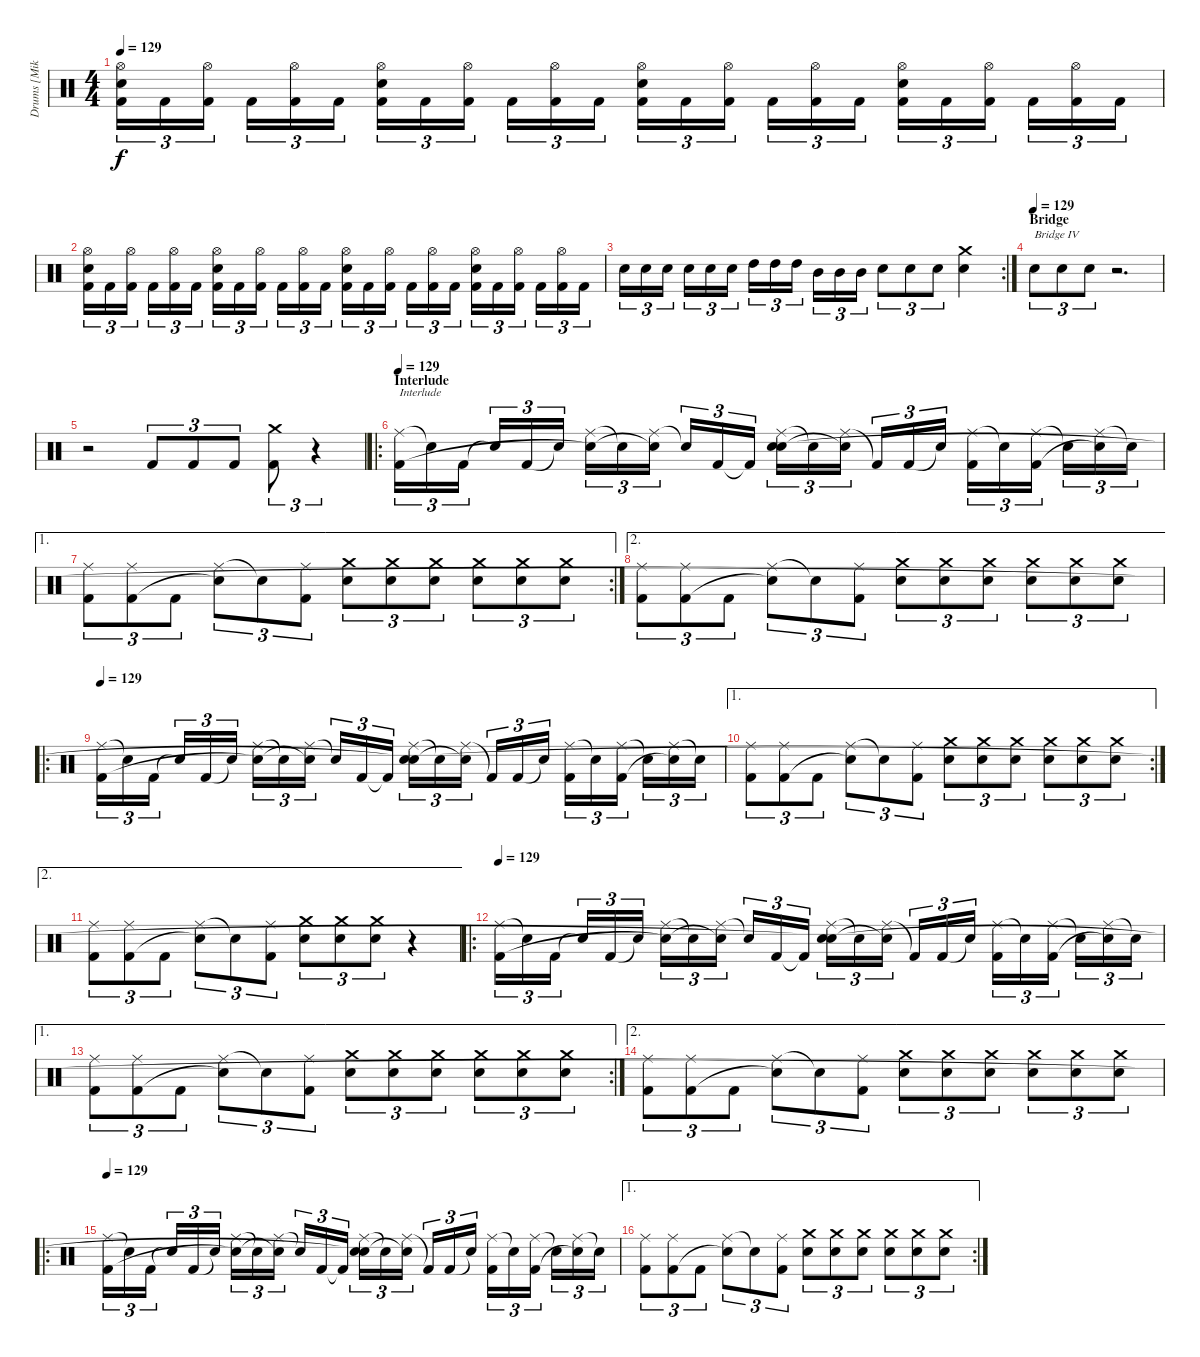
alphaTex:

\track ("Drums [Mike Smith]" "Drums [Mik") {instrument percussion}
\staff {score}
\articulation defaults
\ts (4 4)
\tempo 129
\clef neutral
\ks c
("Hi-Hat (open)" "Electric Snare (hit)" "Kick (hit) 2").16{tu (3 2) dy f} "Kick (hit) 2".16{tu (3 2)} ("Hi-Hat (open)" "Kick (hit) 2").16{tu (3 2)} "Kick (hit) 2".16{tu (3 2)} ("Hi-Hat (open)" "Kick (hit) 2").16{tu (3 2)} "Kick (hit) 2".16{tu (3 2)} ("Hi-Hat (open)" "Electric Snare (hit)" "Kick (hit) 2").16{tu (3 2)} "Kick (hit) 2".16{tu (3 2)} ("Hi-Hat (open)" "Kick (hit) 2").16{tu (3 2)} "Kick (hit) 2".16{tu (3 2)} ("Hi-Hat (open)" "Kick (hit) 2").16{tu (3 2)} "Kick (hit) 2".16{tu (3 2)} ("Hi-Hat (open)" "Electric Snare (hit)" "Kick (hit) 2").16{tu (3 2)} "Kick (hit) 2".16{tu (3 2)} ("Hi-Hat (open)" "Kick (hit) 2").16{tu (3 2)} "Kick (hit) 2".16{tu (3 2)} ("Hi-Hat (open)" "Kick (hit) 2").16{tu (3 2)} "Kick (hit) 2".16{tu (3 2)} ("Hi-Hat (open)" "Electric Snare (hit)" "Kick (hit) 2").16{tu (3 2)} "Kick (hit) 2".16{tu (3 2)} ("Hi-Hat (open)" "Kick (hit) 2").16{tu (3 2)} "Kick (hit) 2".16{tu (3 2)} ("Hi-Hat (open)" "Kick (hit) 2").16{tu (3 2)} "Kick (hit) 2".16{tu (3 2)} |
("Hi-Hat (open)" "Electric Snare (hit)" "Kick (hit) 2").16{tu (3 2)} "Kick (hit) 2".16{tu (3 2)} ("Hi-Hat (open)" "Kick (hit) 2").16{tu (3 2)} "Kick (hit) 2".16{tu (3 2)} ("Hi-Hat (open)" "Kick (hit) 2").16{tu (3 2)} "Kick (hit) 2".16{tu (3 2)} ("Hi-Hat (open)" "Electric Snare (hit)" "Kick (hit) 2").16{tu (3 2)} "Kick (hit) 2".16{tu (3 2)} ("Hi-Hat (open)" "Kick (hit) 2").16{tu (3 2)} "Kick (hit) 2".16{tu (3 2)} ("Hi-Hat (open)" "Kick (hit) 2").16{tu (3 2)} "Kick (hit) 2".16{tu (3 2)} ("Hi-Hat (open)" "Electric Snare (hit)" "Kick (hit) 2").16{tu (3 2)} "Kick (hit) 2".16{tu (3 2)} ("Hi-Hat (open)" "Kick (hit) 2").16{tu (3 2)} "Kick (hit) 2".16{tu (3 2)} ("Hi-Hat (open)" "Kick (hit) 2").16{tu (3 2)} "Kick (hit) 2".16{tu (3 2)} ("Hi-Hat (open)" "Electric Snare (hit)" "Kick (hit) 2").16{tu (3 2)} "Kick (hit) 2".16{tu (3 2)} ("Hi-Hat (open)" "Kick (hit) 2").16{tu (3 2)} "Kick (hit) 2".16{tu (3 2)} ("Hi-Hat (open)" "Kick (hit) 2").16{tu (3 2)} "Kick (hit) 2".16{tu (3 2)} |
\rc 2 "Electric Snare (hit)".16{tu (3 2)} "Electric Snare (hit)".16{tu (3 2)} "Electric Snare (hit)".16{tu (3 2)} "Electric Snare (hit)".16{tu (3 2)} "Electric Snare (hit)".16{tu (3 2)} "Electric Snare (hit)".16{tu (3 2)} "High Tom (hit)".16{tu (3 2)} "High Tom (hit)".16{tu (3 2)} "High Tom (hit)".16{tu (3 2)} "Mid Tom (hit)".16{tu (3 2)} "Mid Tom (hit)".16{tu (3 2)} "Mid Tom (hit)".16{tu (3 2)} "Electric Snare (hit)".8{tu (3 2)} "Electric Snare (hit)".8{tu (3 2)} "Electric Snare (hit)".8{tu (3 2)}
("Crash medium (hit)" "Electric Snare (hit)").4 |
\section ("" "Bridge")
\tempo (129)
"Electric Snare (hit)".8{tu (3 2) txt "Bridge IV"} "Electric Snare (hit)".8{tu (3 2)} "Electric Snare (hit)".8{tu (3 2)} r.2{d} |
r.2 "Kick (hit) 2".8{tu (3 2)} "Kick (hit) 2".8{tu (3 2)} "Kick (hit) 2".8{tu (3 2)} ("Crash medium (hit)" "Kick (hit) 2").8{tu (3 2)} r.4{tu (3 2)} |
\ro
\section ("" "Interlude")
\tempo 129
("Ride (middle)" "Kick (hit) 2").16{tu (3 2) txt "Interlude"} "Snare (hit)"{t}.16{tu (3 2)} "Kick (hit) 2".16{tu (3 2)} "Snare (hit)"{t}.16{tu (3 2)} "Kick (hit) 2".16{tu (3 2)} "Snare (hit)"{t}.16{tu (3 2)} ("Ride (middle)" "Snare (hit)"{t}).16{tu (3 2)} "Snare (hit)"{t}.16{tu (3 2)} ("Ride (middle)" "Snare (hit)"{t}).16{tu (3 2)} "Snare (hit)"{t}.16{tu (3 2)} "Kick (hit) 2".16{tu (3 2)} "Kick (hit) 2"{t}.16{tu (3 2)} ("Ride (middle)" "Electric Snare (hit)" "Snare (hit)").16{tu (3 2)} "Snare (hit)"{t}.16{tu (3 2)} ("Ride (middle)" "Snare (hit)"{t}).16{tu (3 2)} "Kick (hit) 2"{t}.16{tu (3 2)} "Kick (hit) 2".16{tu (3 2)} "Snare (hit)"{t}.16{tu (3 2)} ("Ride (middle)" "Kick (hit) 2").16{tu (3 2)} "Snare (hit)"{t}.16{tu (3 2)} ("Ride (middle)" "Kick (hit) 2").16{tu (3 2)} "Snare (hit)"{t}.16{tu (3 2)} ("Ride (middle)" "Snare (hit)"{t}).16{tu (3 2)} "Snare (hit)"{t}.16{tu (3 2)} |
\ae 1
\rc 2
("Ride (middle)" "Kick (hit) 2").8{tu (3 2)} ("Ride (middle)" "Kick (hit) 2").8{tu (3 2)} "Kick (hit) 2".8{tu (3 2)} ("Ride (middle)" "Snare (hit)"{t}).8{tu (3 2)} "Snare (hit)"{t}.8{tu (3 2)} ("Ride (middle)" "Kick (hit) 2").8{tu (3 2)} ("Crash medium (hit)" "Electric Snare (hit)").8{tu (3 2)} ("Crash medium (hit)" "Electric Snare (hit)").8{tu (3 2)} ("Crash medium (hit)" "Electric Snare (hit)").8{tu (3 2)} ("Crash medium (hit)" "Electric Snare (hit)").8{tu (3 2)} ("Crash medium (hit)" "Electric Snare (hit)").8{tu (3 2)} ("Crash medium (hit)" "Electric Snare (hit)").8{tu (3 2)} |
\ae 2
("Ride (middle)" "Kick (hit) 2").8{tu (3 2)} ("Ride (middle)" "Kick (hit) 2").8{tu (3 2)} "Kick (hit) 2".8{tu (3 2)} ("Ride (middle)" "Snare (hit)"{t}).8{tu (3 2)} "Snare (hit)"{t}.8{tu (3 2)} ("Ride (middle)" "Kick (hit) 2").8{tu (3 2)} ("Crash medium (hit)" "Electric Snare (hit)").8{tu (3 2)} ("Crash medium (hit)" "Electric Snare (hit)").8{tu (3 2)} ("Crash medium (hit)" "Electric Snare (hit)").8{tu (3 2)} ("Crash medium (hit)" "Electric Snare (hit)").8{tu (3 2)} ("Crash medium (hit)" "Electric Snare (hit)").8{tu (3 2)} ("Crash medium (hit)" "Electric Snare (hit)").8{tu (3 2)} |
\ro
\tempo 129
("Ride (middle)" "Kick (hit) 2").16{tu (3 2)} "Snare (hit)"{t}.16{tu (3 2)} "Kick (hit) 2".16{tu (3 2)} "Snare (hit)"{t}.16{tu (3 2)} "Kick (hit) 2".16{tu (3 2)} "Snare (hit)"{t}.16{tu (3 2)} ("Ride (middle)" "Snare (hit)"{t}).16{tu (3 2)} "Snare (hit)"{t}.16{tu (3 2)} ("Ride (middle)" "Snare (hit)"{t}).16{tu (3 2)} "Snare (hit)"{t}.16{tu (3 2)} "Kick (hit) 2".16{tu (3 2)} "Kick (hit) 2"{t}.16{tu (3 2)} ("Ride (middle)" "Electric Snare (hit)" "Snare (hit)"{t}).16{tu (3 2)} "Snare (hit)"{t}.16{tu (3 2)} ("Ride (middle)" "Snare (hit)"{t}).16{tu (3 2)} "Kick (hit) 2"{t}.16{tu (3 2)} "Kick (hit) 2".16{tu (3 2)} "Snare (hit)"{t}.16{tu (3 2)} ("Ride (middle)" "Kick (hit) 2").16{tu (3 2)} "Snare (hit)"{t}.16{tu (3 2)} ("Ride (middle)" "Kick (hit) 2").16{tu (3 2)} "Snare (hit)"{t}.16{tu (3 2)} ("Ride (middle)" "Snare (hit)"{t}).16{tu (3 2)} "Snare (hit)"{t}.16{tu (3 2)} |
\ae 1
\rc 2
("Ride (middle)" "Kick (hit) 2").8{tu (3 2)} ("Ride (middle)" "Kick (hit) 2").8{tu (3 2)} "Kick (hit) 2".8{tu (3 2)} ("Ride (middle)" "Snare (hit)"{t}).8{tu (3 2)} "Snare (hit)"{t}.8{tu (3 2)} ("Ride (middle)" "Kick (hit) 2").8{tu (3 2)} ("Crash medium (hit)" "Electric Snare (hit)").8{tu (3 2)} ("Crash medium (hit)" "Electric Snare (hit)").8{tu (3 2)} ("Crash medium (hit)" "Electric Snare (hit)").8{tu (3 2)} ("Crash medium (hit)" "Electric Snare (hit)").8{tu (3 2)} ("Crash medium (hit)" "Electric Snare (hit)").8{tu (3 2)} ("Crash medium (hit)" "Electric Snare (hit)").8{tu (3 2)} |
\ae 2
("Ride (middle)" "Kick (hit) 2").8{tu (3 2)} ("Ride (middle)" "Kick (hit) 2").8{tu (3 2)} "Kick (hit) 2".8{tu (3 2)} ("Ride (middle)" "Snare (hit)"{t}).8{tu (3 2)} "Snare (hit)"{t}.8{tu (3 2)} ("Ride (middle)" "Kick (hit) 2").8{tu (3 2)} ("Crash medium (hit)" "Electric Snare (hit)").8{tu (3 2)} ("Crash medium (hit)" "Electric Snare (hit)").8{tu (3 2)} ("Crash medium (hit)" "Electric Snare (hit)").8{tu (3 2)} r.4 |
\ro
\tempo 129
("Ride (middle)" "Kick (hit) 2").16{tu (3 2)} "Snare (hit)"{t}.16{tu (3 2)} "Kick (hit) 2".16{tu (3 2)} "Snare (hit)"{t}.16{tu (3 2)} "Kick (hit) 2".16{tu (3 2)} "Snare (hit)"{t}.16{tu (3 2)} ("Ride (middle)" "Snare (hit)"{t}).16{tu (3 2)} "Snare (hit)"{t}.16{tu (3 2)} ("Ride (middle)" "Snare (hit)"{t}).16{tu (3 2)} "Snare (hit)"{t}.16{tu (3 2)} "Kick (hit) 2".16{tu (3 2)} "Kick (hit) 2"{t}.16{tu (3 2)} ("Ride (middle)" "Electric Snare (hit)" "Snare (hit)"{t}).16{tu (3 2)} "Snare (hit)"{t}.16{tu (3 2)} ("Ride (middle)" "Snare (hit)"{t}).16{tu (3 2)} "Kick (hit) 2"{t}.16{tu (3 2)} "Kick (hit) 2".16{tu (3 2)} "Snare (hit)"{t}.16{tu (3 2)} ("Ride (middle)" "Kick (hit) 2").16{tu (3 2)} "Snare (hit)"{t}.16{tu (3 2)} ("Ride (middle)" "Kick (hit) 2").16{tu (3 2)} "Snare (hit)"{t}.16{tu (3 2)} ("Ride (middle)" "Snare (hit)"{t}).16{tu (3 2)} "Snare (hit)"{t}.16{tu (3 2)} |
\ae 1
\rc 2
("Ride (middle)" "Kick (hit) 2").8{tu (3 2)} ("Ride (middle)" "Kick (hit) 2").8{tu (3 2)} "Kick (hit) 2".8{tu (3 2)} ("Ride (middle)" "Snare (hit)"{t}).8{tu (3 2)} "Snare (hit)"{t}.8{tu (3 2)} ("Ride (middle)" "Kick (hit) 2").8{tu (3 2)} ("Crash medium (hit)" "Electric Snare (hit)").8{tu (3 2)} ("Crash medium (hit)" "Electric Snare (hit)").8{tu (3 2)} ("Crash medium (hit)" "Electric Snare (hit)").8{tu (3 2)} ("Crash medium (hit)" "Electric Snare (hit)").8{tu (3 2)} ("Crash medium (hit)" "Electric Snare (hit)").8{tu (3 2)} ("Crash medium (hit)" "Electric Snare (hit)").8{tu (3 2)} |
\ae 2
("Ride (middle)" "Kick (hit) 2").8{tu (3 2)} ("Ride (middle)" "Kick (hit) 2").8{tu (3 2)} "Kick (hit) 2".8{tu (3 2)} ("Ride (middle)" "Snare (hit)"{t}).8{tu (3 2)} "Snare (hit)"{t}.8{tu (3 2)} ("Ride (middle)" "Kick (hit) 2").8{tu (3 2)} ("Crash medium (hit)" "Electric Snare (hit)").8{tu (3 2)} ("Crash medium (hit)" "Electric Snare (hit)").8{tu (3 2)} ("Crash medium (hit)" "Electric Snare (hit)").8{tu (3 2)} ("Crash medium (hit)" "Electric Snare (hit)").8{tu (3 2)} ("Crash medium (hit)" "Electric Snare (hit)").8{tu (3 2)} ("Crash medium (hit)" "Electric Snare (hit)").8{tu (3 2)} |
\ro
\tempo 129
("Ride (middle)" "Kick (hit) 2").16{tu (3 2)} "Snare (hit)"{t}.16{tu (3 2)} "Kick (hit) 2".16{tu (3 2)} "Snare (hit)"{t}.16{tu (3 2)} "Kick (hit) 2".16{tu (3 2)} "Snare (hit)"{t}.16{tu (3 2)} ("Ride (middle)" "Snare (hit)"{t}).16{tu (3 2)} "Snare (hit)"{t}.16{tu (3 2)} ("Ride (middle)" "Snare (hit)"{t}).16{tu (3 2)} "Snare (hit)"{t}.16{tu (3 2)} "Kick (hit) 2".16{tu (3 2)} "Kick (hit) 2"{t}.16{tu (3 2)} ("Ride (middle)" "Electric Snare (hit)" "Snare (hit)"{t}).16{tu (3 2)} "Snare (hit)"{t}.16{tu (3 2)} ("Ride (middle)" "Snare (hit)"{t}).16{tu (3 2)} "Kick (hit) 2"{t}.16{tu (3 2)} "Kick (hit) 2".16{tu (3 2)} "Snare (hit)"{t}.16{tu (3 2)} ("Ride (middle)" "Kick (hit) 2").16{tu (3 2)} "Snare (hit)"{t}.16{tu (3 2)} ("Ride (middle)" "Kick (hit) 2").16{tu (3 2)} "Snare (hit)"{t}.16{tu (3 2)} ("Ride (middle)" "Snare (hit)"{t}).16{tu (3 2)} "Snare (hit)"{t}.16{tu (3 2)} |
\ae 1
\rc 2
("Ride (middle)" "Kick (hit) 2").8{tu (3 2)} ("Ride (middle)" "Kick (hit) 2").8{tu (3 2)} "Kick (hit) 2".8{tu (3 2)} ("Ride (middle)" "Snare (hit)"{t}).8{tu (3 2)} "Snare (hit)"{t}.8{tu (3 2)} ("Ride (middle)" "Kick (hit) 2").8{tu (3 2)} ("Crash medium (hit)" "Electric Snare (hit)").8{tu (3 2)} ("Crash medium (hit)" "Electric Snare (hit)").8{tu (3 2)} ("Crash medium (hit)" "Electric Snare (hit)").8{tu (3 2)} ("Crash medium (hit)" "Electric Snare (hit)").8{tu (3 2)} ("Crash medium (hit)" "Electric Snare (hit)").8{tu (3 2)} ("Crash medium (hit)" "Electric Snare (hit)").8{tu (3 2)}
